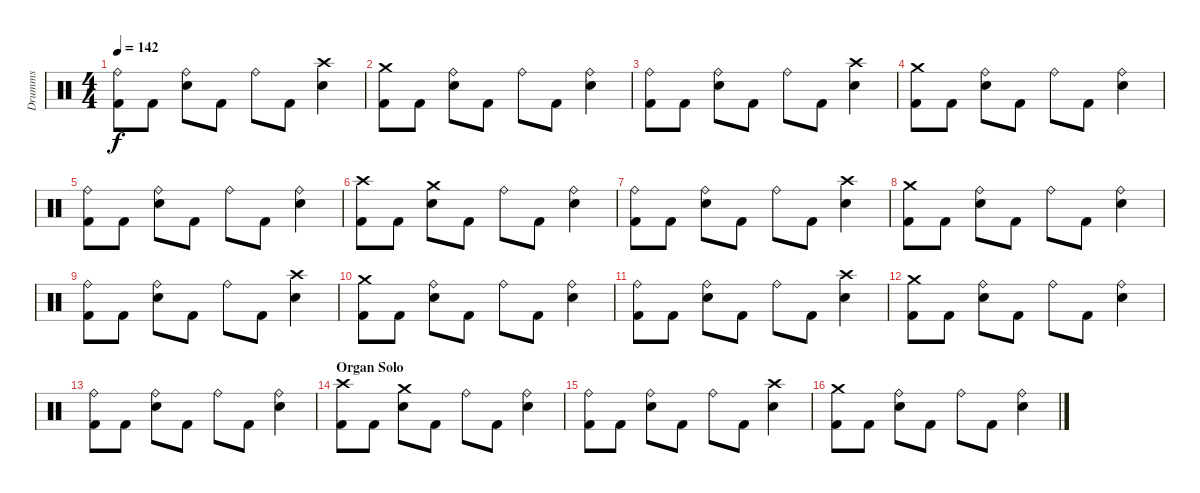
\track ("Drumms" "Drumms") {instrument percussion}
\staff {score}
\articulation defaults
\ts (4 4)
\tempo 142
\clef neutral
\ks c
("Kick (hit) 2" "Ride (bell)").8{dy f} "Kick (hit) 2".8 ("Electric Snare (hit)" "Ride (bell)").8 "Kick (hit) 2".8 "Ride (bell)".8 "Kick (hit) 2".8 ("Electric Snare (hit)" "Crash high (hit)").4 |
("Kick (hit) 2" "Crash medium (hit)").8 "Kick (hit) 2".8 ("Electric Snare (hit)" "Ride (bell)").8 "Kick (hit) 2".8 "Ride (bell)".8 "Kick (hit) 2".8 ("Electric Snare (hit)" "Ride (bell)").4 |
("Kick (hit) 2" "Ride (bell)").8 "Kick (hit) 2".8 ("Electric Snare (hit)" "Ride (bell)").8 "Kick (hit) 2".8 "Ride (bell)".8 "Kick (hit) 2".8 ("Electric Snare (hit)" "Crash high (hit)").4 |
("Kick (hit) 2" "Crash medium (hit)").8 "Kick (hit) 2".8 ("Electric Snare (hit)" "Ride (bell)").8 "Kick (hit) 2".8 "Ride (bell)".8 "Kick (hit) 2".8 ("Electric Snare (hit)" "Ride (bell)").4 |
("Kick (hit) 2" "Ride (bell)").8 "Kick (hit) 2".8 ("Electric Snare (hit)" "Ride (bell)").8 "Kick (hit) 2".8 "Ride (bell)".8 "Kick (hit) 2".8 ("Electric Snare (hit)" "Ride (bell)").4 |
("Kick (hit) 2" "Crash high (hit)").8 "Kick (hit) 2".8 ("Electric Snare (hit)" "Crash medium (hit)").8 "Kick (hit) 2".8 "Ride (bell)".8 "Kick (hit) 2".8 ("Electric Snare (hit)" "Ride (bell)").4 |
("Ride (bell)" "Kick (hit) 2").8 "Kick (hit) 2".8 ("Ride (bell)" "Electric Snare (hit)").8 "Kick (hit) 2".8 "Ride (bell)".8 "Kick (hit) 2".8 ("Crash high (hit)" "Electric Snare (hit)").4 |
("Kick (hit) 2" "Crash medium (hit)").8 "Kick (hit) 2".8 ("Electric Snare (hit)" "Ride (bell)").8 "Kick (hit) 2".8 "Ride (bell)".8 "Kick (hit) 2".8 ("Electric Snare (hit)" "Ride (bell)").4 |
("Kick (hit) 2" "Ride (bell)").8 "Kick (hit) 2".8 ("Electric Snare (hit)" "Ride (bell)").8 "Kick (hit) 2".8 "Ride (bell)".8 "Kick (hit) 2".8 ("Electric Snare (hit)" "Crash high (hit)").4 |
("Kick (hit) 2" "Crash medium (hit)").8 "Kick (hit) 2".8 ("Electric Snare (hit)" "Ride (bell)").8 "Kick (hit) 2".8 "Ride (bell)".8 "Kick (hit) 2".8 ("Electric Snare (hit)" "Ride (bell)").4 |
("Kick (hit) 2" "Ride (bell)").8 "Kick (hit) 2".8 ("Electric Snare (hit)" "Ride (bell)").8 "Kick (hit) 2".8 "Ride (bell)".8 "Kick (hit) 2".8 ("Electric Snare (hit)" "Crash high (hit)").4 |
("Kick (hit) 2" "Crash medium (hit)").8 "Kick (hit) 2".8 ("Electric Snare (hit)" "Ride (bell)").8 "Kick (hit) 2".8 "Ride (bell)".8 "Kick (hit) 2".8 ("Electric Snare (hit)" "Ride (bell)").4 |
("Kick (hit) 2" "Ride (bell)").8 "Kick (hit) 2".8 ("Electric Snare (hit)" "Ride (bell)").8 "Kick (hit) 2".8 "Ride (bell)".8 "Kick (hit) 2".8 ("Electric Snare (hit)" "Ride (bell)").4 |
\section ("" "Organ Solo")
("Kick (hit) 2" "Crash high (hit)").8 "Kick (hit) 2".8 ("Electric Snare (hit)" "Crash medium (hit)").8 "Kick (hit) 2".8 "Ride (bell)".8 "Kick (hit) 2".8 ("Electric Snare (hit)" "Ride (bell)").4 |
("Ride (bell)" "Kick (hit) 2").8 "Kick (hit) 2".8 ("Ride (bell)" "Electric Snare (hit)").8 "Kick (hit) 2".8 "Ride (bell)".8 "Kick (hit) 2".8 ("Crash high (hit)" "Electric Snare (hit)").4 |
("Kick (hit) 2" "Crash medium (hit)").8 "Kick (hit) 2".8 ("Electric Snare (hit)" "Ride (bell)").8 "Kick (hit) 2".8 "Ride (bell)".8 "Kick (hit) 2".8 ("Electric Snare (hit)" "Ride (bell)").4
